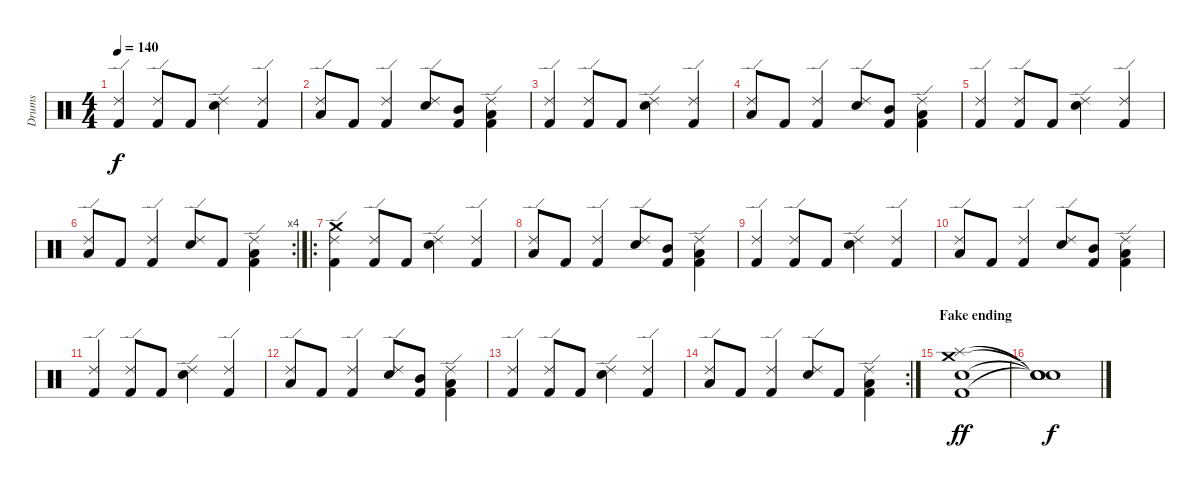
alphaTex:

\track ("Drums" "Drums") {instrument percussion}
\staff {score}
\articulation defaults
\ts (4 4)
\tempo 140
\clef neutral
\ks c
("Ride (edge) 2" "Kick (hit) 2").4{dy f} ("Ride (edge) 2" "Kick (hit) 2").8 "Kick (hit) 2".8 ("Ride (edge) 2" "Snare (hit) 2").4 ("Ride (edge) 2" "Kick (hit) 2").4 |
("Ride (edge) 2" "Low Tom (hit)").8 "Kick (hit) 2".8 ("Ride (edge) 2" "Kick (hit) 2").4 ("Ride (edge) 2" "Snare (hit) 2").8 ("Mid Tom (hit)" "Kick (hit) 2").8 ("Ride (edge) 2" "Low Tom (hit)" "Kick (hit) 2").4 |
("Ride (edge) 2" "Kick (hit) 2").4 ("Ride (edge) 2" "Kick (hit) 2").8 "Kick (hit) 2".8 ("Ride (edge) 2" "Snare (hit) 2").4 ("Ride (edge) 2" "Kick (hit) 2").4 |
("Ride (edge) 2" "Low Tom (hit)").8 "Kick (hit) 2".8 ("Ride (edge) 2" "Kick (hit) 2").4 ("Ride (edge) 2" "Snare (hit) 2").8 ("Mid Tom (hit)" "Kick (hit) 2").8 ("Ride (edge) 2" "Low Tom (hit)" "Kick (hit) 2").4 |
("Ride (edge) 2" "Kick (hit) 2").4 ("Ride (edge) 2" "Kick (hit) 2").8 "Kick (hit) 2".8 ("Ride (edge) 2" "Snare (hit) 2").4 ("Ride (edge) 2" "Kick (hit) 2").4 |
\rc 4
("Ride (edge) 2" "Low Tom (hit)").8 "Kick (hit) 2".8 ("Ride (edge) 2" "Kick (hit) 2").4 ("Ride (edge) 2" "Snare (hit) 2").8 "Kick (hit) 2".8 ("Ride (edge) 2" "Low Tom (hit)" "Kick (hit) 2").4 |
\ro
("Ride (edge) 2" "Crash medium (hit)" "Kick (hit) 2").4 ("Ride (edge) 2" "Kick (hit) 2").8 "Kick (hit) 2".8 ("Ride (edge) 2" "Snare (hit) 2").4 ("Ride (edge) 2" "Kick (hit) 2").4 |
("Ride (edge) 2" "Low Tom (hit)").8 "Kick (hit) 2".8 ("Ride (edge) 2" "Kick (hit) 2").4 ("Ride (edge) 2" "Snare (hit) 2").8 ("Mid Tom (hit)" "Kick (hit) 2").8 ("Ride (edge) 2" "Low Tom (hit)" "Kick (hit) 2").4 |
("Ride (edge) 2" "Kick (hit) 2").4 ("Ride (edge) 2" "Kick (hit) 2").8 "Kick (hit) 2".8 ("Ride (edge) 2" "Snare (hit) 2").4 ("Ride (edge) 2" "Kick (hit) 2").4 |
("Ride (edge) 2" "Low Tom (hit)").8 "Kick (hit) 2".8 ("Ride (edge) 2" "Kick (hit) 2").4 ("Ride (edge) 2" "Snare (hit) 2").8 ("Mid Tom (hit)" "Kick (hit) 2").8 ("Ride (edge) 2" "Low Tom (hit)" "Kick (hit) 2").4 |
("Ride (edge) 2" "Kick (hit) 2").4 ("Ride (edge) 2" "Kick (hit) 2").8 "Kick (hit) 2".8 ("Ride (edge) 2" "Snare (hit) 2").4 ("Ride (edge) 2" "Kick (hit) 2").4 |
("Ride (edge) 2" "Low Tom (hit)").8 "Kick (hit) 2".8 ("Ride (edge) 2" "Kick (hit) 2").4 ("Ride (edge) 2" "Snare (hit) 2").8 ("Mid Tom (hit)" "Kick (hit) 2").8 ("Ride (edge) 2" "Low Tom (hit)" "Kick (hit) 2").4 |
("Ride (edge) 2" "Kick (hit) 2").4 ("Ride (edge) 2" "Kick (hit) 2").8 "Kick (hit) 2".8 ("Ride (edge) 2" "Snare (hit) 2").4 ("Ride (edge) 2" "Kick (hit) 2").4 |
\rc 2
("Ride (edge) 2" "Low Tom (hit)").8 "Kick (hit) 2".8 ("Ride (edge) 2" "Kick (hit) 2").4 ("Ride (edge) 2" "Snare (hit) 2").8 "Kick (hit) 2".8 ("Ride (edge) 2" "Low Tom (hit)" "Kick (hit) 2").4 |
\section ("" "Fake ending")
("Splash (hit)" "Crash medium (hit)" "Snare (hit) 2" "Kick (hit) 2").1{dy ff} |
("Snare (hit)"{t} "Snare (hit)"{t} "Snare (hit)"{t} "Snare (hit)"{t}).1{dy f}
